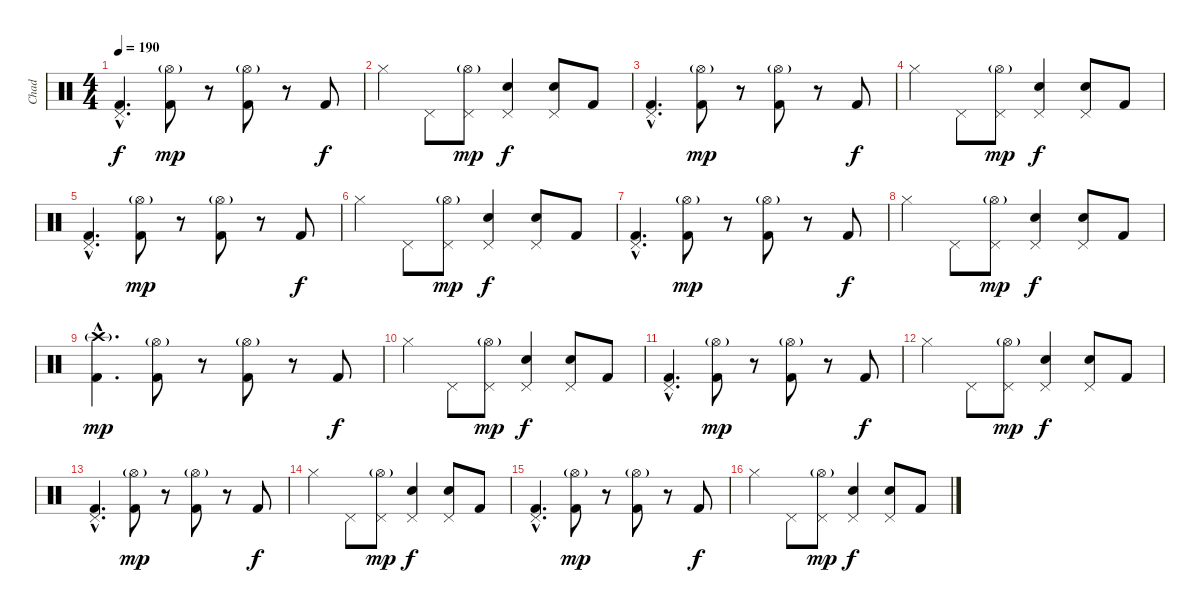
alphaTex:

\track ("Chad" "Chad") {instrument percussion}
\staff {score}
\articulation defaults
\ts (4 4)
\tempo 190
\clef neutral
\ks c
("Kick (hit) 2"{hac} "Pedal Hi-Hat (hit)"{hac}).4{d dy f} ("Kick (hit) 2" "Hi-Hat (open)"{g}).8{dy mp} r.8 ("Kick (hit) 2" "Hi-Hat (open)"{g}).8 r.8 "Kick (hit) 2".8{dy f} |
"Hi-Hat (closed)".4 "Pedal Hi-Hat (hit)".8 ("Pedal Hi-Hat (hit)" "Hi-Hat (open)"{g}).8{dy mp} ("Electric Snare (hit)" "Pedal Hi-Hat (hit)").4{dy f} ("Electric Snare (hit)" "Pedal Hi-Hat (hit)").8 "Kick (hit) 2".8 |
("Kick (hit) 2"{hac} "Pedal Hi-Hat (hit)"{hac}).4{d} ("Kick (hit) 2" "Hi-Hat (open)"{g}).8{dy mp} r.8 ("Kick (hit) 2" "Hi-Hat (open)"{g}).8 r.8 "Kick (hit) 2".8{dy f} |
"Hi-Hat (closed)".4 "Pedal Hi-Hat (hit)".8 ("Pedal Hi-Hat (hit)" "Hi-Hat (open)"{g}).8{dy mp} ("Electric Snare (hit)" "Pedal Hi-Hat (hit)").4{dy f} ("Electric Snare (hit)" "Pedal Hi-Hat (hit)").8 "Kick (hit) 2".8 |
("Kick (hit) 2"{hac} "Pedal Hi-Hat (hit)"{hac}).4{d} ("Kick (hit) 2" "Hi-Hat (open)"{g}).8{dy mp} r.8 ("Kick (hit) 2" "Hi-Hat (open)"{g}).8 r.8 "Kick (hit) 2".8{dy f} |
"Hi-Hat (closed)".4 "Pedal Hi-Hat (hit)".8 ("Pedal Hi-Hat (hit)" "Hi-Hat (open)"{g}).8{dy mp} ("Electric Snare (hit)" "Pedal Hi-Hat (hit)").4{dy f} ("Electric Snare (hit)" "Pedal Hi-Hat (hit)").8 "Kick (hit) 2".8 |
("Kick (hit) 2"{hac} "Pedal Hi-Hat (hit)"{hac}).4{d} ("Kick (hit) 2" "Hi-Hat (open)"{g}).8{dy mp} r.8 ("Kick (hit) 2" "Hi-Hat (open)"{g}).8 r.8 "Kick (hit) 2".8{dy f} |
"Hi-Hat (closed)".4 "Pedal Hi-Hat (hit)".8 ("Pedal Hi-Hat (hit)" "Hi-Hat (open)"{g}).8{dy mp} ("Electric Snare (hit)" "Pedal Hi-Hat (hit)").4{dy f} ("Electric Snare (hit)" "Pedal Hi-Hat (hit)").8 "Kick (hit) 2".8 |
\section ("" "")
("Kick (hit) 2"{hac} "Crash high (hit)"{g hac}).4{d dy mp} ("Kick (hit) 2" "Hi-Hat (open)"{g}).8 r.8 ("Kick (hit) 2" "Hi-Hat (open)"{g}).8 r.8 "Kick (hit) 2".8{dy f} |
"Hi-Hat (closed)".4 "Pedal Hi-Hat (hit)".8 ("Pedal Hi-Hat (hit)" "Hi-Hat (open)"{g}).8{dy mp} ("Electric Snare (hit)" "Pedal Hi-Hat (hit)").4{dy f} ("Electric Snare (hit)" "Pedal Hi-Hat (hit)").8 "Kick (hit) 2".8 |
("Kick (hit) 2"{hac} "Pedal Hi-Hat (hit)"{hac}).4{d} ("Kick (hit) 2" "Hi-Hat (open)"{g}).8{dy mp} r.8 ("Kick (hit) 2" "Hi-Hat (open)"{g}).8 r.8 "Kick (hit) 2".8{dy f} |
"Hi-Hat (closed)".4 "Pedal Hi-Hat (hit)".8 ("Pedal Hi-Hat (hit)" "Hi-Hat (open)"{g}).8{dy mp} ("Electric Snare (hit)" "Pedal Hi-Hat (hit)").4{dy f} ("Electric Snare (hit)" "Pedal Hi-Hat (hit)").8 "Kick (hit) 2".8 |
("Kick (hit) 2"{hac} "Pedal Hi-Hat (hit)"{hac}).4{d} ("Kick (hit) 2" "Hi-Hat (open)"{g}).8{dy mp} r.8 ("Kick (hit) 2" "Hi-Hat (open)"{g}).8 r.8 "Kick (hit) 2".8{dy f} |
"Hi-Hat (closed)".4 "Pedal Hi-Hat (hit)".8 ("Pedal Hi-Hat (hit)" "Hi-Hat (open)"{g}).8{dy mp} ("Electric Snare (hit)" "Pedal Hi-Hat (hit)").4{dy f} ("Electric Snare (hit)" "Pedal Hi-Hat (hit)").8 "Kick (hit) 2".8 |
("Kick (hit) 2"{hac} "Pedal Hi-Hat (hit)"{hac}).4{d} ("Kick (hit) 2" "Hi-Hat (open)"{g}).8{dy mp} r.8 ("Kick (hit) 2" "Hi-Hat (open)"{g}).8 r.8 "Kick (hit) 2".8{dy f} |
"Hi-Hat (closed)".4 "Pedal Hi-Hat (hit)".8 ("Pedal Hi-Hat (hit)" "Hi-Hat (open)"{g}).8{dy mp} ("Electric Snare (hit)" "Pedal Hi-Hat (hit)").4{dy f} ("Electric Snare (hit)" "Pedal Hi-Hat (hit)").8 "Kick (hit) 2".8
